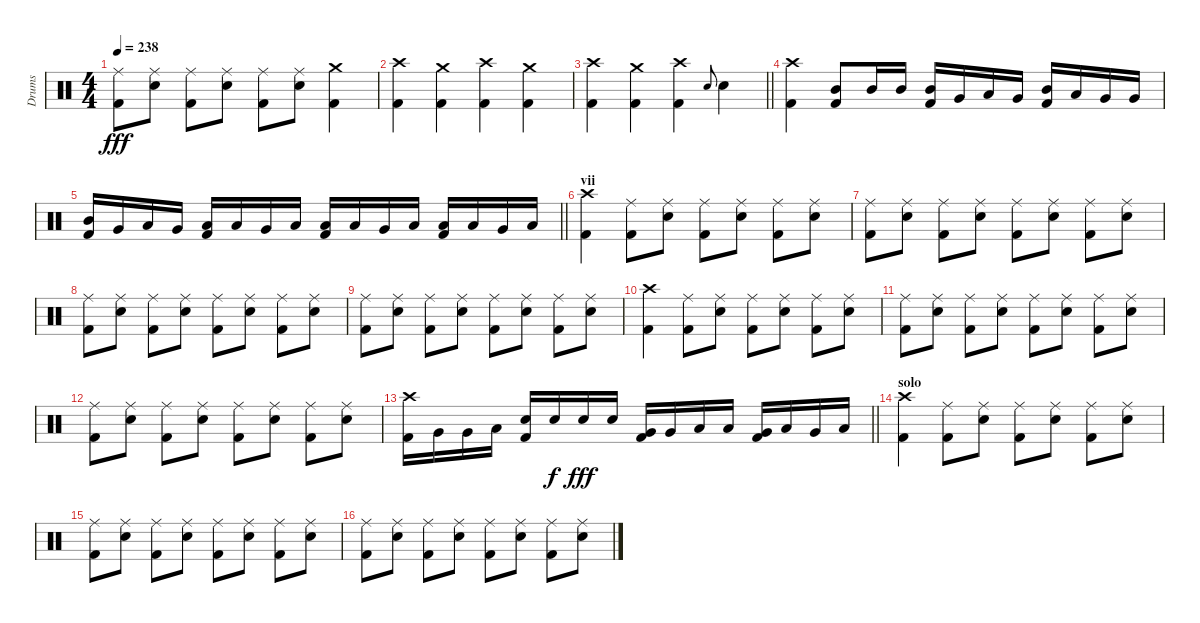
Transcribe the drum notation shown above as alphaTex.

\track ("Drums" "Drums") {instrument percussion}
\staff {score}
\articulation defaults
\ts (4 4)
\tempo 238
\clef neutral
\ks c
("Ride (middle)" "Kick (hit) 2").8{dy fff} ("Ride (middle)" "Electric Snare (hit)").8 ("Ride (middle)" "Kick (hit) 2").8 ("Ride (middle)" "Electric Snare (hit)").8 ("Ride (middle)" "Kick (hit) 2").8 ("Ride (middle)" "Electric Snare (hit)").8 ("Crash medium (hit)" "Kick (hit) 2").4 |
("Crash high (hit)" "Kick (hit) 2").4 ("Crash medium (hit)" "Kick (hit) 2").4 ("Crash high (hit)" "Kick (hit) 2").4 ("Crash medium (hit)" "Kick (hit) 2").4 |
\barLineRight lightlight
("Crash high (hit)" "Kick (hit) 2").4 ("Crash medium (hit)" "Kick (hit) 2").4 ("Crash high (hit)" "Kick (hit) 2").4 "Electric Snare (hit)".8{gr onbeat} "Electric Snare (hit)".4 |
("Crash high (hit)" "Kick (hit) 2").4 ("Mid Tom (hit)" "Kick (hit) 2").8 "Mid Tom (hit)".16 "Mid Tom (hit)".16 ("Mid Tom (hit)" "Kick (hit) 2").16 "Very Low Tom (hit)".16 "Low Tom (hit)".16 "Very Low Tom (hit)".16 ("Mid Tom (hit)" "Kick (hit) 2").16 "Low Tom (hit)".16 "Very Low Tom (hit)".16 "Very Low Tom (hit)".16 |
\barLineRight lightlight
("Mid Tom (hit)" "Kick (hit) 2").16 "Very Low Tom (hit)".16 "Low Tom (hit)".16 "Very Low Tom (hit)".16 ("Low Tom (hit)" "Kick (hit) 2").16 "Low Floor Tom (hit)".16 "Very Low Tom (hit)".16 "Low Floor Tom (hit)".16 ("Low Tom (hit)" "Kick (hit) 2").16 "Low Floor Tom (hit)".16 "Very Low Tom (hit)".16 "Low Floor Tom (hit)".16 ("Low Tom (hit)" "Kick (hit) 2").16 "Low Floor Tom (hit)".16 "Very Low Tom (hit)".16 "Low Floor Tom (hit)".16 |
\section ("" "vii")
("Crash high (hit)" "Kick (hit) 2").4 ("Ride (middle)" "Kick (hit) 2").8 ("Ride (middle)" "Electric Snare (hit)").8 ("Ride (middle)" "Kick (hit) 2").8 ("Ride (middle)" "Electric Snare (hit)").8 ("Ride (middle)" "Kick (hit) 2").8 ("Ride (middle)" "Electric Snare (hit)").8 |
("Ride (middle)" "Kick (hit) 2").8 ("Ride (middle)" "Electric Snare (hit)").8 ("Ride (middle)" "Kick (hit) 2").8 ("Ride (middle)" "Electric Snare (hit)").8 ("Ride (middle)" "Kick (hit) 2").8 ("Ride (middle)" "Electric Snare (hit)").8 ("Ride (middle)" "Kick (hit) 2").8 ("Ride (middle)" "Electric Snare (hit)").8 |
("Ride (middle)" "Kick (hit) 2").8 ("Ride (middle)" "Electric Snare (hit)").8 ("Ride (middle)" "Kick (hit) 2").8 ("Ride (middle)" "Electric Snare (hit)").8 ("Ride (middle)" "Kick (hit) 2").8 ("Ride (middle)" "Electric Snare (hit)").8 ("Ride (middle)" "Kick (hit) 2").8 ("Ride (middle)" "Electric Snare (hit)").8 |
("Ride (middle)" "Kick (hit) 2").8 ("Ride (middle)" "Electric Snare (hit)").8 ("Ride (middle)" "Kick (hit) 2").8 ("Ride (middle)" "Electric Snare (hit)").8 ("Ride (middle)" "Kick (hit) 2").8 ("Ride (middle)" "Electric Snare (hit)").8 ("Ride (middle)" "Kick (hit) 2").8 ("Ride (middle)" "Electric Snare (hit)").8 |
("Crash high (hit)" "Kick (hit) 2").4 ("Ride (middle)" "Kick (hit) 2").8 ("Ride (middle)" "Electric Snare (hit)").8 ("Ride (middle)" "Kick (hit) 2").8 ("Ride (middle)" "Electric Snare (hit)").8 ("Ride (middle)" "Kick (hit) 2").8 ("Ride (middle)" "Electric Snare (hit)").8 |
("Ride (middle)" "Kick (hit) 2").8 ("Ride (middle)" "Electric Snare (hit)").8 ("Ride (middle)" "Kick (hit) 2").8 ("Ride (middle)" "Electric Snare (hit)").8 ("Ride (middle)" "Kick (hit) 2").8 ("Ride (middle)" "Electric Snare (hit)").8 ("Ride (middle)" "Kick (hit) 2").8 ("Ride (middle)" "Electric Snare (hit)").8 |
("Ride (middle)" "Kick (hit) 2").8 ("Ride (middle)" "Electric Snare (hit)").8 ("Ride (middle)" "Kick (hit) 2").8 ("Ride (middle)" "Electric Snare (hit)").8 ("Ride (middle)" "Kick (hit) 2").8 ("Ride (middle)" "Electric Snare (hit)").8 ("Ride (middle)" "Kick (hit) 2").8 ("Ride (middle)" "Electric Snare (hit)").8 |
\barLineRight lightlight
("Crash high (hit)" "Kick (hit) 2").16 "Very Low Tom (hit)".16 "Very Low Tom (hit)".16 "Low Floor Tom (hit)".16 ("Electric Snare (hit)" "Kick (hit) 2").16 "Electric Snare (hit)".16{dy f} "Electric Snare (hit)".16{dy fff} "Electric Snare (hit)".16 ("Very Low Tom (hit)" "Kick (hit) 2").16 "Very Low Tom (hit)".16 "Low Floor Tom (hit)".16 "Low Floor Tom (hit)".16 ("Very Low Tom (hit)" "Kick (hit) 2").16 "Low Floor Tom (hit)".16 "Very Low Tom (hit)".16 "Low Floor Tom (hit)".16 |
\section ("" "solo")
("Crash high (hit)" "Kick (hit) 2").4 ("Ride (middle)" "Kick (hit) 2").8 ("Ride (middle)" "Electric Snare (hit)").8 ("Ride (middle)" "Kick (hit) 2").8 ("Ride (middle)" "Electric Snare (hit)").8 ("Ride (middle)" "Kick (hit) 2").8 ("Ride (middle)" "Electric Snare (hit)").8 |
("Ride (middle)" "Kick (hit) 2").8 ("Ride (middle)" "Electric Snare (hit)").8 ("Ride (middle)" "Kick (hit) 2").8 ("Ride (middle)" "Electric Snare (hit)").8 ("Ride (middle)" "Kick (hit) 2").8 ("Ride (middle)" "Electric Snare (hit)").8 ("Ride (middle)" "Kick (hit) 2").8 ("Ride (middle)" "Electric Snare (hit)").8 |
("Ride (middle)" "Kick (hit) 2").8 ("Ride (middle)" "Electric Snare (hit)").8 ("Ride (middle)" "Kick (hit) 2").8 ("Ride (middle)" "Electric Snare (hit)").8 ("Ride (middle)" "Kick (hit) 2").8 ("Ride (middle)" "Electric Snare (hit)").8 ("Ride (middle)" "Kick (hit) 2").8 ("Ride (middle)" "Electric Snare (hit)").8
